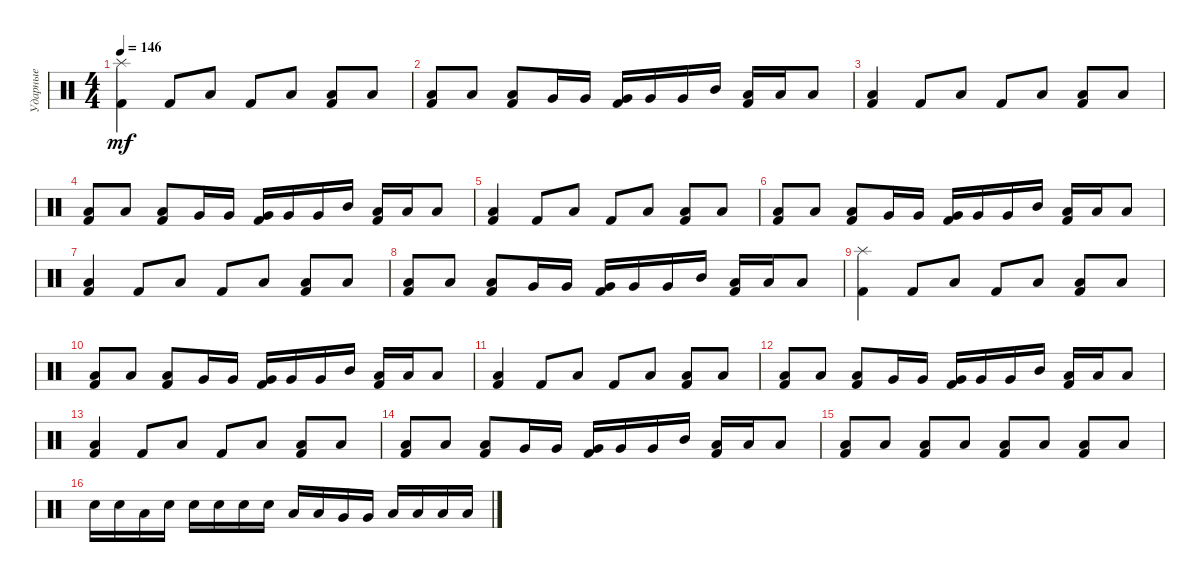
\track ("Ударные" "Ударные") {instrument percussion}
\staff {score}
\articulation defaults
\ts (4 4)
\tempo 146
\clef neutral
\ks c
("Splash (hit)" "Kick (hit) 2").4{dy mf} "Kick (hit) 2".8 "Low Tom (hit)".8 "Kick (hit) 2".8 "Low Tom (hit)".8 ("Low Tom (hit)" "Kick (hit) 2").8 "Low Tom (hit)".8 |
("Low Tom (hit)" "Kick (hit) 2").8 "Low Tom (hit)".8 ("Low Tom (hit)" "Kick (hit) 2").8 "Very Low Tom (hit)".16 "Very Low Tom (hit)".16 ("Very Low Tom (hit)" "Kick (hit) 2").16 "Very Low Tom (hit)".16 "Very Low Tom (hit)".16 "Mid Tom (hit)".16 ("Low Tom (hit)" "Kick (hit) 2").16 "Low Tom (hit)".16 "Low Tom (hit)".8 |
("Low Tom (hit)" "Kick (hit) 2").4 "Kick (hit) 2".8 "Low Tom (hit)".8 "Kick (hit) 2".8 "Low Tom (hit)".8 ("Low Tom (hit)" "Kick (hit) 2").8 "Low Tom (hit)".8 |
("Low Tom (hit)" "Kick (hit) 2").8 "Low Tom (hit)".8 ("Low Tom (hit)" "Kick (hit) 2").8 "Very Low Tom (hit)".16 "Very Low Tom (hit)".16 ("Very Low Tom (hit)" "Kick (hit) 2").16 "Very Low Tom (hit)".16 "Very Low Tom (hit)".16 "Mid Tom (hit)".16 ("Low Tom (hit)" "Kick (hit) 2").16 "Low Tom (hit)".16 "Low Tom (hit)".8 |
("Low Tom (hit)" "Kick (hit) 2").4 "Kick (hit) 2".8 "Low Tom (hit)".8 "Kick (hit) 2".8 "Low Tom (hit)".8 ("Low Tom (hit)" "Kick (hit) 2").8 "Low Tom (hit)".8 |
("Low Tom (hit)" "Kick (hit) 2").8 "Low Tom (hit)".8 ("Low Tom (hit)" "Kick (hit) 2").8 "Very Low Tom (hit)".16 "Very Low Tom (hit)".16 ("Very Low Tom (hit)" "Kick (hit) 2").16 "Very Low Tom (hit)".16 "Very Low Tom (hit)".16 "Mid Tom (hit)".16 ("Low Tom (hit)" "Kick (hit) 2").16 "Low Tom (hit)".16 "Low Tom (hit)".8 |
("Low Tom (hit)" "Kick (hit) 2").4 "Kick (hit) 2".8 "Low Tom (hit)".8 "Kick (hit) 2".8 "Low Tom (hit)".8 ("Low Tom (hit)" "Kick (hit) 2").8 "Low Tom (hit)".8 |
("Low Tom (hit)" "Kick (hit) 2").8 "Low Tom (hit)".8 ("Low Tom (hit)" "Kick (hit) 2").8 "Very Low Tom (hit)".16 "Very Low Tom (hit)".16 ("Very Low Tom (hit)" "Kick (hit) 2").16 "Very Low Tom (hit)".16 "Very Low Tom (hit)".16 "Mid Tom (hit)".16 ("Low Tom (hit)" "Kick (hit) 2").16 "Low Tom (hit)".16 "Low Tom (hit)".8 |
("Splash (hit)" "Kick (hit) 2").4 "Kick (hit) 2".8 "Low Tom (hit)".8 "Kick (hit) 2".8 "Low Tom (hit)".8 ("Low Tom (hit)" "Kick (hit) 2").8 "Low Tom (hit)".8 |
("Low Tom (hit)" "Kick (hit) 2").8 "Low Tom (hit)".8 ("Low Tom (hit)" "Kick (hit) 2").8 "Very Low Tom (hit)".16 "Very Low Tom (hit)".16 ("Very Low Tom (hit)" "Kick (hit) 2").16 "Very Low Tom (hit)".16 "Very Low Tom (hit)".16 "Mid Tom (hit)".16 ("Low Tom (hit)" "Kick (hit) 2").16 "Low Tom (hit)".16 "Low Tom (hit)".8 |
("Low Tom (hit)" "Kick (hit) 2").4 "Kick (hit) 2".8 "Low Tom (hit)".8 "Kick (hit) 2".8 "Low Tom (hit)".8 ("Low Tom (hit)" "Kick (hit) 2").8 "Low Tom (hit)".8 |
("Low Tom (hit)" "Kick (hit) 2").8 "Low Tom (hit)".8 ("Low Tom (hit)" "Kick (hit) 2").8 "Very Low Tom (hit)".16 "Very Low Tom (hit)".16 ("Very Low Tom (hit)" "Kick (hit) 2").16 "Very Low Tom (hit)".16 "Very Low Tom (hit)".16 "Mid Tom (hit)".16 ("Low Tom (hit)" "Kick (hit) 2").16 "Low Tom (hit)".16 "Low Tom (hit)".8 |
("Low Tom (hit)" "Kick (hit) 2").4 "Kick (hit) 2".8 "Low Tom (hit)".8 "Kick (hit) 2".8 "Low Tom (hit)".8 ("Low Tom (hit)" "Kick (hit) 2").8 "Low Tom (hit)".8 |
("Low Tom (hit)" "Kick (hit) 2").8 "Low Tom (hit)".8 ("Low Tom (hit)" "Kick (hit) 2").8 "Very Low Tom (hit)".16 "Very Low Tom (hit)".16 ("Very Low Tom (hit)" "Kick (hit) 2").16 "Very Low Tom (hit)".16 "Very Low Tom (hit)".16 "Mid Tom (hit)".16 ("Low Tom (hit)" "Kick (hit) 2").16 "Low Tom (hit)".16 "Low Tom (hit)".8 |
("Low Tom (hit)" "Kick (hit) 2").8 "Low Tom (hit)".8 ("Low Tom (hit)" "Kick (hit) 2").8 "Low Tom (hit)".8 ("Low Tom (hit)" "Kick (hit) 2").8 "Low Tom (hit)".8 ("Low Tom (hit)" "Kick (hit) 2").8 "Low Tom (hit)".8 |
"Electric Snare (hit)".16 "Electric Snare (hit)".16 "Low Tom (hit)".16 "Electric Snare (hit)".16 "Electric Snare (hit)".16 "Electric Snare (hit)".16 "Electric Snare (hit)".16 "Electric Snare (hit)".16 "Low Tom (hit)".16 "Low Tom (hit)".16 "Very Low Tom (hit)".16 "Very Low Tom (hit)".16 "Low Tom (hit)".16 "Low Tom (hit)".16 "Low Tom (hit)".16 "Low Tom (hit)".16
